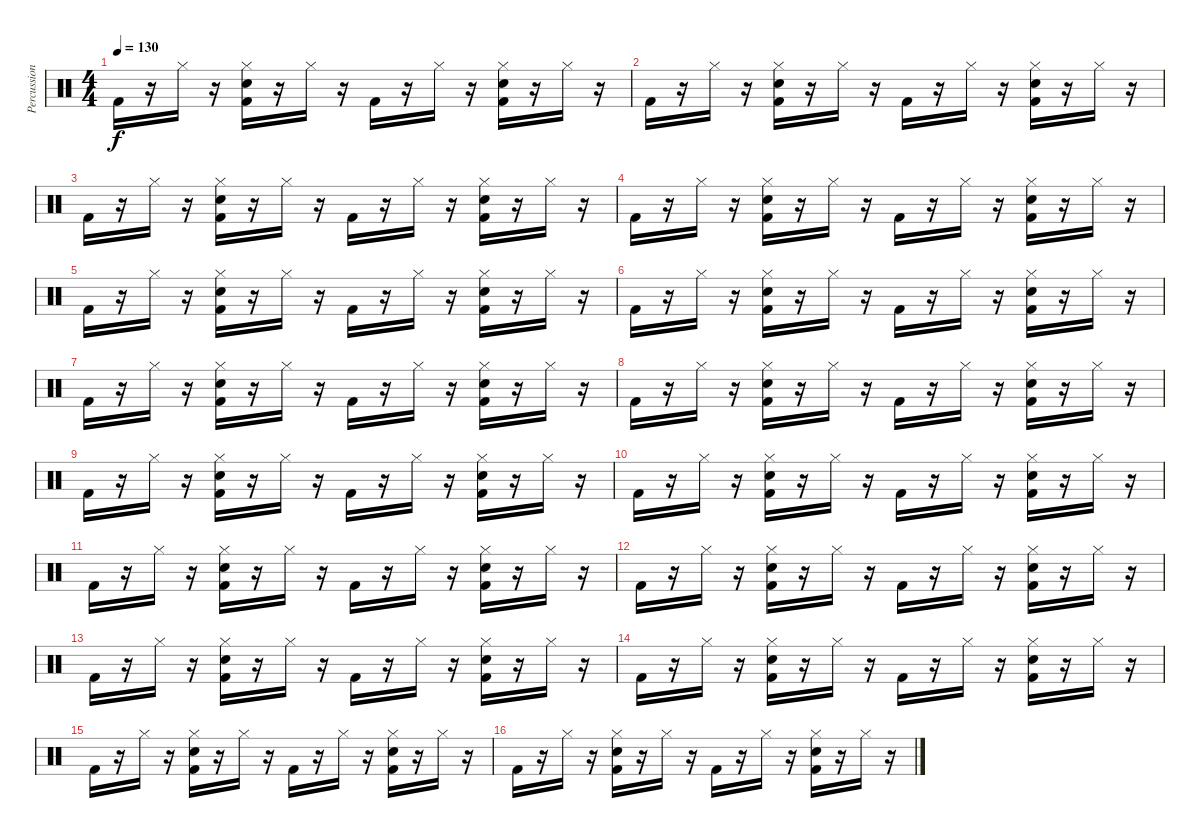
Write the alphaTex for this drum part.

\track ("Percussion" "Percussion") {instrument percussion}
\staff {score}
\articulation defaults
\ts (4 4)
\tempo 130
\clef neutral
\ks c "Kick (hit) 2".16{dy f}
r.16 "Hi-Hat (closed)".16 r.16 ("Hi-Hat (closed)" "Electric Snare (hit)" "Kick (hit) 2").16 r.16 "Hi-Hat (closed)".16 r.16 "Kick (hit) 2".16 r.16 "Hi-Hat (closed)".16 r.16 ("Hi-Hat (closed)" "Electric Snare (hit)" "Kick (hit) 2").16 r.16 "Hi-Hat (closed)".16 r.16 |
"Kick (hit) 2".16 r.16 "Hi-Hat (closed)".16 r.16 ("Hi-Hat (closed)" "Electric Snare (hit)" "Kick (hit) 2").16 r.16 "Hi-Hat (closed)".16 r.16 "Kick (hit) 2".16 r.16 "Hi-Hat (closed)".16 r.16 ("Hi-Hat (closed)" "Electric Snare (hit)" "Kick (hit) 2").16 r.16 "Hi-Hat (closed)".16 r.16 |
"Kick (hit) 2".16 r.16 "Hi-Hat (closed)".16 r.16 ("Hi-Hat (closed)" "Electric Snare (hit)" "Kick (hit) 2").16 r.16 "Hi-Hat (closed)".16 r.16 "Kick (hit) 2".16 r.16 "Hi-Hat (closed)".16 r.16 ("Hi-Hat (closed)" "Electric Snare (hit)" "Kick (hit) 2").16 r.16 "Hi-Hat (closed)".16 r.16 |
"Kick (hit) 2".16 r.16 "Hi-Hat (closed)".16 r.16 ("Hi-Hat (closed)" "Electric Snare (hit)" "Kick (hit) 2").16 r.16 "Hi-Hat (closed)".16 r.16 "Kick (hit) 2".16 r.16 "Hi-Hat (closed)".16 r.16 ("Hi-Hat (closed)" "Electric Snare (hit)" "Kick (hit) 2").16 r.16 "Hi-Hat (closed)".16 r.16 |
"Kick (hit) 2".16 r.16 "Hi-Hat (closed)".16 r.16 ("Hi-Hat (closed)" "Electric Snare (hit)" "Kick (hit) 2").16 r.16 "Hi-Hat (closed)".16 r.16 "Kick (hit) 2".16 r.16 "Hi-Hat (closed)".16 r.16 ("Hi-Hat (closed)" "Electric Snare (hit)" "Kick (hit) 2").16 r.16 "Hi-Hat (closed)".16 r.16 |
"Kick (hit) 2".16 r.16 "Hi-Hat (closed)".16 r.16 ("Hi-Hat (closed)" "Electric Snare (hit)" "Kick (hit) 2").16 r.16 "Hi-Hat (closed)".16 r.16 "Kick (hit) 2".16 r.16 "Hi-Hat (closed)".16 r.16 ("Hi-Hat (closed)" "Electric Snare (hit)" "Kick (hit) 2").16 r.16 "Hi-Hat (closed)".16 r.16 |
"Kick (hit) 2".16 r.16 "Hi-Hat (closed)".16 r.16 ("Hi-Hat (closed)" "Electric Snare (hit)" "Kick (hit) 2").16 r.16 "Hi-Hat (closed)".16 r.16 "Kick (hit) 2".16 r.16 "Hi-Hat (closed)".16 r.16 ("Hi-Hat (closed)" "Electric Snare (hit)" "Kick (hit) 2").16 r.16 "Hi-Hat (closed)".16 r.16 |
"Kick (hit) 2".16 r.16 "Hi-Hat (closed)".16 r.16 ("Hi-Hat (closed)" "Electric Snare (hit)" "Kick (hit) 2").16 r.16 "Hi-Hat (closed)".16 r.16 "Kick (hit) 2".16 r.16 "Hi-Hat (closed)".16 r.16 ("Hi-Hat (closed)" "Electric Snare (hit)" "Kick (hit) 2").16 r.16 "Hi-Hat (closed)".16 r.16 |
"Kick (hit) 2".16 r.16 "Hi-Hat (closed)".16 r.16 ("Hi-Hat (closed)" "Electric Snare (hit)" "Kick (hit) 2").16 r.16 "Hi-Hat (closed)".16 r.16 "Kick (hit) 2".16 r.16 "Hi-Hat (closed)".16 r.16 ("Hi-Hat (closed)" "Electric Snare (hit)" "Kick (hit) 2").16 r.16 "Hi-Hat (closed)".16 r.16 |
"Kick (hit) 2".16 r.16 "Hi-Hat (closed)".16 r.16 ("Hi-Hat (closed)" "Electric Snare (hit)" "Kick (hit) 2").16 r.16 "Hi-Hat (closed)".16 r.16 "Kick (hit) 2".16 r.16 "Hi-Hat (closed)".16 r.16 ("Hi-Hat (closed)" "Electric Snare (hit)" "Kick (hit) 2").16 r.16 "Hi-Hat (closed)".16 r.16 |
"Kick (hit) 2".16 r.16 "Hi-Hat (closed)".16 r.16 ("Hi-Hat (closed)" "Electric Snare (hit)" "Kick (hit) 2").16 r.16 "Hi-Hat (closed)".16 r.16 "Kick (hit) 2".16 r.16 "Hi-Hat (closed)".16 r.16 ("Hi-Hat (closed)" "Electric Snare (hit)" "Kick (hit) 2").16 r.16 "Hi-Hat (closed)".16 r.16 |
"Kick (hit) 2".16 r.16 "Hi-Hat (closed)".16 r.16 ("Hi-Hat (closed)" "Electric Snare (hit)" "Kick (hit) 2").16 r.16 "Hi-Hat (closed)".16 r.16 "Kick (hit) 2".16 r.16 "Hi-Hat (closed)".16 r.16 ("Hi-Hat (closed)" "Electric Snare (hit)" "Kick (hit) 2").16 r.16 "Hi-Hat (closed)".16 r.16 |
"Kick (hit) 2".16 r.16 "Hi-Hat (closed)".16 r.16 ("Hi-Hat (closed)" "Electric Snare (hit)" "Kick (hit) 2").16 r.16 "Hi-Hat (closed)".16 r.16 "Kick (hit) 2".16 r.16 "Hi-Hat (closed)".16 r.16 ("Hi-Hat (closed)" "Electric Snare (hit)" "Kick (hit) 2").16 r.16 "Hi-Hat (closed)".16 r.16 |
"Kick (hit) 2".16 r.16 "Hi-Hat (closed)".16 r.16 ("Hi-Hat (closed)" "Electric Snare (hit)" "Kick (hit) 2").16 r.16 "Hi-Hat (closed)".16 r.16 "Kick (hit) 2".16 r.16 "Hi-Hat (closed)".16 r.16 ("Hi-Hat (closed)" "Electric Snare (hit)" "Kick (hit) 2").16 r.16 "Hi-Hat (closed)".16 r.16 |
"Kick (hit) 2".16 r.16 "Hi-Hat (closed)".16 r.16 ("Hi-Hat (closed)" "Electric Snare (hit)" "Kick (hit) 2").16 r.16 "Hi-Hat (closed)".16 r.16 "Kick (hit) 2".16 r.16 "Hi-Hat (closed)".16 r.16 ("Hi-Hat (closed)" "Electric Snare (hit)" "Kick (hit) 2").16 r.16 "Hi-Hat (closed)".16 r.16 |
"Kick (hit) 2".16 r.16 "Hi-Hat (closed)".16 r.16 ("Hi-Hat (closed)" "Electric Snare (hit)" "Kick (hit) 2").16 r.16 "Hi-Hat (closed)".16 r.16 "Kick (hit) 2".16 r.16 "Hi-Hat (closed)".16 r.16 ("Hi-Hat (closed)" "Electric Snare (hit)" "Kick (hit) 2").16 r.16 "Hi-Hat (closed)".16 r.16
